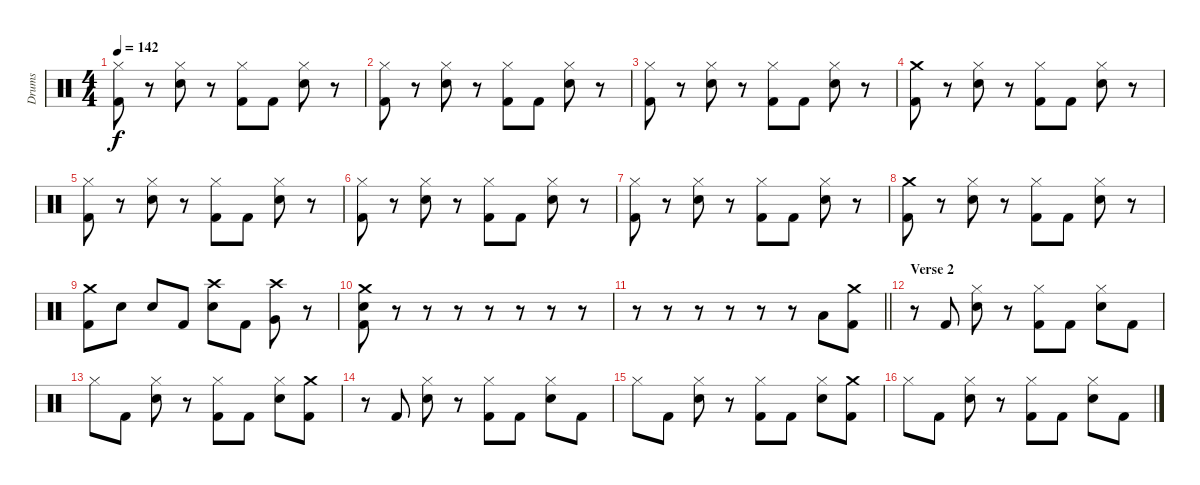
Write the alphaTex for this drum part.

\track ("Drums" "Drums") {instrument percussion}
\staff {score}
\articulation defaults
\ts (4 4)
\tempo 142
\clef neutral
\ks c
("Hi-Hat (closed)" "Kick (hit) 2").8{dy f} r.8 ("Hi-Hat (closed)" "Electric Snare (hit)").8 r.8 ("Hi-Hat (closed)" "Kick (hit) 2").8 "Kick (hit) 2".8 ("Hi-Hat (closed)" "Electric Snare (hit)").8 r.8 |
("Hi-Hat (closed)" "Kick (hit) 2").8 r.8 ("Hi-Hat (closed)" "Electric Snare (hit)").8 r.8 ("Hi-Hat (closed)" "Kick (hit) 2").8 "Kick (hit) 2".8 ("Hi-Hat (closed)" "Electric Snare (hit)").8 r.8 |
("Hi-Hat (closed)" "Kick (hit) 2").8 r.8 ("Hi-Hat (closed)" "Electric Snare (hit)").8 r.8 ("Hi-Hat (closed)" "Kick (hit) 2").8 "Kick (hit) 2".8 ("Hi-Hat (closed)" "Electric Snare (hit)").8 r.8 |
("Crash medium (hit)" "Kick (hit) 2").8 r.8 ("Hi-Hat (closed)" "Electric Snare (hit)").8 r.8 ("Hi-Hat (closed)" "Kick (hit) 2").8 "Kick (hit) 2".8 ("Hi-Hat (closed)" "Electric Snare (hit)").8 r.8 |
("Hi-Hat (closed)" "Kick (hit) 2").8 r.8 ("Hi-Hat (closed)" "Electric Snare (hit)").8 r.8 ("Hi-Hat (closed)" "Kick (hit) 2").8 "Kick (hit) 2".8 ("Hi-Hat (closed)" "Electric Snare (hit)").8 r.8 |
("Hi-Hat (closed)" "Kick (hit) 2").8 r.8 ("Hi-Hat (closed)" "Electric Snare (hit)").8 r.8 ("Hi-Hat (closed)" "Kick (hit) 2").8 "Kick (hit) 2".8 ("Hi-Hat (closed)" "Electric Snare (hit)").8 r.8 |
("Hi-Hat (closed)" "Kick (hit) 2").8 r.8 ("Hi-Hat (closed)" "Electric Snare (hit)").8 r.8 ("Hi-Hat (closed)" "Kick (hit) 2").8 "Kick (hit) 2".8 ("Hi-Hat (closed)" "Electric Snare (hit)").8 r.8 |
("Crash medium (hit)" "Kick (hit) 2").8 r.8 ("Hi-Hat (closed)" "Electric Snare (hit)").8 r.8 ("Hi-Hat (closed)" "Kick (hit) 2").8 "Kick (hit) 2".8 ("Hi-Hat (closed)" "Electric Snare (hit)").8 r.8 |
("Crash medium (hit)" "Kick (hit) 2").8 "Electric Snare (hit)".8 "Electric Snare (hit)".8 "Kick (hit) 2".8 ("Crash high (hit)" "Electric Snare (hit)").8 "Kick (hit) 2".8 ("Crash high (hit)" "Very Low Tom (hit)").8 r.8 |
("Crash medium (hit)" "Electric Snare (hit)" "Kick (hit) 2").8 r.8 r.8 r.8 r.8 r.8 r.8 r.8 |
\barLineRight lightlight
r.8 r.8 r.8 r.8 r.8 r.8 "Low Floor Tom (hit)".8 ("Crash medium (hit)" "Kick (hit) 2").8 |
\section ("" "Verse 2")
r.8 "Kick (hit) 2".8 ("Hi-Hat (closed)" "Electric Snare (hit)").8 r.8 ("Hi-Hat (closed)" "Kick (hit) 2").8 "Kick (hit) 2".8 ("Hi-Hat (closed)" "Electric Snare (hit)").8 "Kick (hit) 2".8 |
"Hi-Hat (closed)".8 "Kick (hit) 2".8 ("Hi-Hat (closed)" "Electric Snare (hit)").8 r.8 ("Hi-Hat (closed)" "Kick (hit) 2").8 "Kick (hit) 2".8 ("Hi-Hat (closed)" "Electric Snare (hit)").8 ("Crash medium (hit)" "Kick (hit) 2").8 |
r.8 "Kick (hit) 2".8 ("Hi-Hat (closed)" "Electric Snare (hit)").8 r.8 ("Hi-Hat (closed)" "Kick (hit) 2").8 "Kick (hit) 2".8 ("Hi-Hat (closed)" "Electric Snare (hit)").8 "Kick (hit) 2".8 |
"Hi-Hat (closed)".8 "Kick (hit) 2".8 ("Hi-Hat (closed)" "Electric Snare (hit)").8 r.8 ("Hi-Hat (closed)" "Kick (hit) 2").8 "Kick (hit) 2".8 ("Hi-Hat (closed)" "Electric Snare (hit)").8 ("Crash medium (hit)" "Kick (hit) 2").8 |
"Hi-Hat (closed)".8 "Kick (hit) 2".8 ("Hi-Hat (closed)" "Electric Snare (hit)").8 r.8 ("Hi-Hat (closed)" "Kick (hit) 2").8 "Kick (hit) 2".8 ("Hi-Hat (closed)" "Electric Snare (hit)").8 "Kick (hit) 2".8
